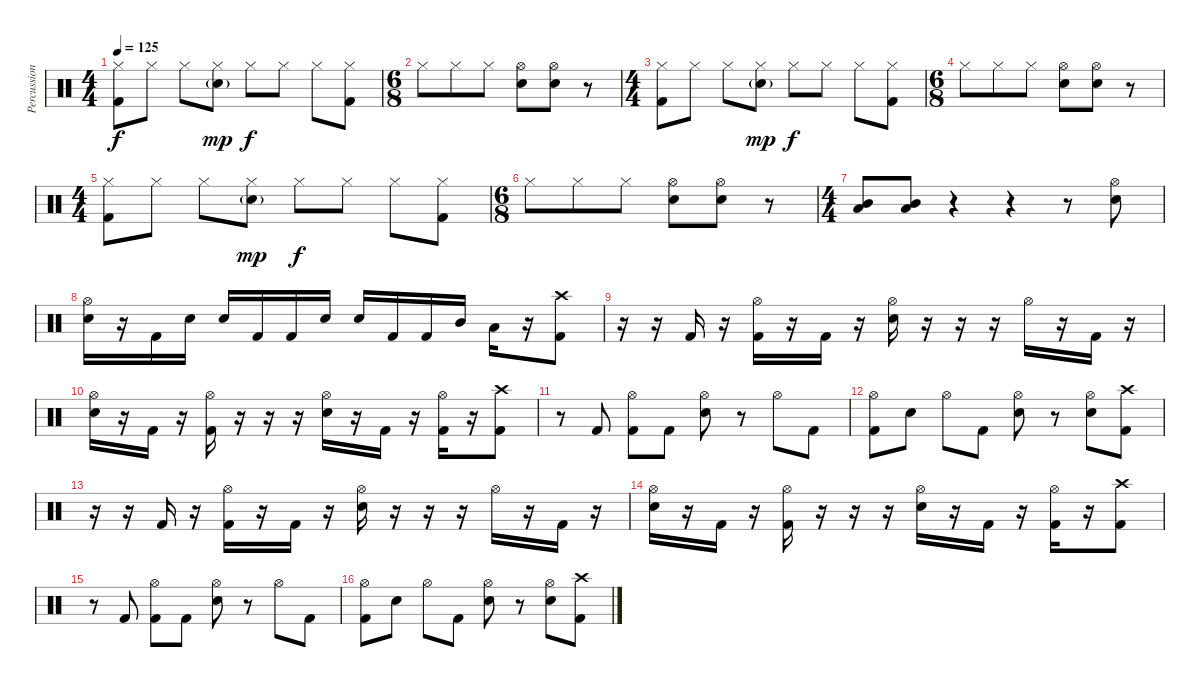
\track ("Percussion" "Percussion") {instrument percussion}
\staff {score}
\articulation defaults
\ts (4 4)
\tempo 125
\clef neutral
\ks c
("Hi-Hat (closed)" "Kick (hit) 2").8{dy f} "Hi-Hat (closed)".8 "Hi-Hat (closed)".8 ("Hi-Hat (closed)" "Electric Snare (hit)"{g}).8{dy mp} "Hi-Hat (closed)".8{dy f} "Hi-Hat (closed)".8 "Hi-Hat (closed)".8 ("Hi-Hat (closed)" "Kick (hit) 2").8 |
\ts (6 8)
"Hi-Hat (closed)".8 "Hi-Hat (closed)".8 "Hi-Hat (closed)".8 ("Hi-Hat (open)" "Electric Snare (hit)").8 ("Hi-Hat (open)" "Electric Snare (hit)").8 r.8 |
\ts (4 4)
("Hi-Hat (closed)" "Kick (hit) 2").8 "Hi-Hat (closed)".8 "Hi-Hat (closed)".8 ("Hi-Hat (closed)" "Electric Snare (hit)"{g}).8{dy mp} "Hi-Hat (closed)".8{dy f} "Hi-Hat (closed)".8 "Hi-Hat (closed)".8 ("Hi-Hat (closed)" "Kick (hit) 2").8 |
\ts (6 8)
"Hi-Hat (closed)".8 "Hi-Hat (closed)".8 "Hi-Hat (closed)".8 ("Hi-Hat (open)" "Electric Snare (hit)").8 ("Hi-Hat (open)" "Electric Snare (hit)").8 r.8 |
\ts (4 4)
("Hi-Hat (closed)" "Kick (hit) 2").8 "Hi-Hat (closed)".8 "Hi-Hat (closed)".8 ("Hi-Hat (closed)" "Electric Snare (hit)"{g}).8{dy mp} "Hi-Hat (closed)".8{dy f} "Hi-Hat (closed)".8 "Hi-Hat (closed)".8 ("Hi-Hat (closed)" "Kick (hit) 2").8 |
\ts (6 8)
"Hi-Hat (closed)".8 "Hi-Hat (closed)".8 "Hi-Hat (closed)".8 ("Hi-Hat (open)" "Electric Snare (hit)").8 ("Hi-Hat (open)" "Electric Snare (hit)").8 r.8 |
\ts (4 4)
("Mid Tom (hit)" "Low Tom (hit)").8 ("Mid Tom (hit)" "Low Tom (hit)").8 r.4 r.4 r.8 ("Hi-Hat (open)" "Electric Snare (hit)").8 |
("Hi-Hat (open)" "Electric Snare (hit)").16 r.16 "Kick (hit) 2".16 "Electric Snare (hit)".16 "Electric Snare (hit)".16 "Kick (hit) 2".16 "Kick (hit) 2".16 "Electric Snare (hit)".16 "Electric Snare (hit)".16 "Kick (hit) 2".16 "Kick (hit) 2".16 "Mid Tom (hit)".16 "Low Tom (hit)".16 r.16 ("Crash high (hit)" "Kick (hit) 2").8 |
r.16 r.16 "Kick (hit) 2".16 r.16 ("Hi-Hat (open)" "Kick (hit) 2").16 r.16 "Kick (hit) 2".16 r.16 ("Hi-Hat (open)" "Electric Snare (hit)").16 r.16 r.16 r.16 "Hi-Hat (open)".16 r.16 "Kick (hit) 2".16 r.16 |
("Hi-Hat (open)" "Electric Snare (hit)").16 r.16 "Kick (hit) 2".16 r.16 ("Hi-Hat (open)" "Kick (hit) 2").16 r.16 r.16 r.16 ("Hi-Hat (open)" "Electric Snare (hit)").16 r.16 "Kick (hit) 2".16 r.16 ("Hi-Hat (open)" "Kick (hit) 2").16 r.16 ("Crash high (hit)" "Kick (hit) 2").8 |
r.8 "Kick (hit) 2".8 ("Hi-Hat (open)" "Kick (hit) 2").8 "Kick (hit) 2".8 ("Hi-Hat (open)" "Electric Snare (hit)").8 r.8 "Hi-Hat (open)".8 "Kick (hit) 2".8 |
("Hi-Hat (open)" "Kick (hit) 2").8 "Electric Snare (hit)".8 "Hi-Hat (open)".8 "Kick (hit) 2".8 ("Hi-Hat (open)" "Electric Snare (hit)").8 r.8 ("Hi-Hat (open)" "Electric Snare (hit)").8 ("Crash high (hit)" "Kick (hit) 2").8 |
r.16 r.16 "Kick (hit) 2".16 r.16 ("Hi-Hat (open)" "Kick (hit) 2").16 r.16 "Kick (hit) 2".16 r.16 ("Hi-Hat (open)" "Electric Snare (hit)").16 r.16 r.16 r.16 "Hi-Hat (open)".16 r.16 "Kick (hit) 2".16 r.16 |
("Hi-Hat (open)" "Electric Snare (hit)").16 r.16 "Kick (hit) 2".16 r.16 ("Hi-Hat (open)" "Kick (hit) 2").16 r.16 r.16 r.16 ("Hi-Hat (open)" "Electric Snare (hit)").16 r.16 "Kick (hit) 2".16 r.16 ("Hi-Hat (open)" "Kick (hit) 2").16 r.16 ("Crash high (hit)" "Kick (hit) 2").8 |
r.8 "Kick (hit) 2".8 ("Hi-Hat (open)" "Kick (hit) 2").8 "Kick (hit) 2".8 ("Hi-Hat (open)" "Electric Snare (hit)").8 r.8 "Hi-Hat (open)".8 "Kick (hit) 2".8 |
("Hi-Hat (open)" "Kick (hit) 2").8 "Electric Snare (hit)".8 "Hi-Hat (open)".8 "Kick (hit) 2".8 ("Hi-Hat (open)" "Electric Snare (hit)").8 r.8 ("Hi-Hat (open)" "Electric Snare (hit)").8 ("Crash high (hit)" "Kick (hit) 2").8
